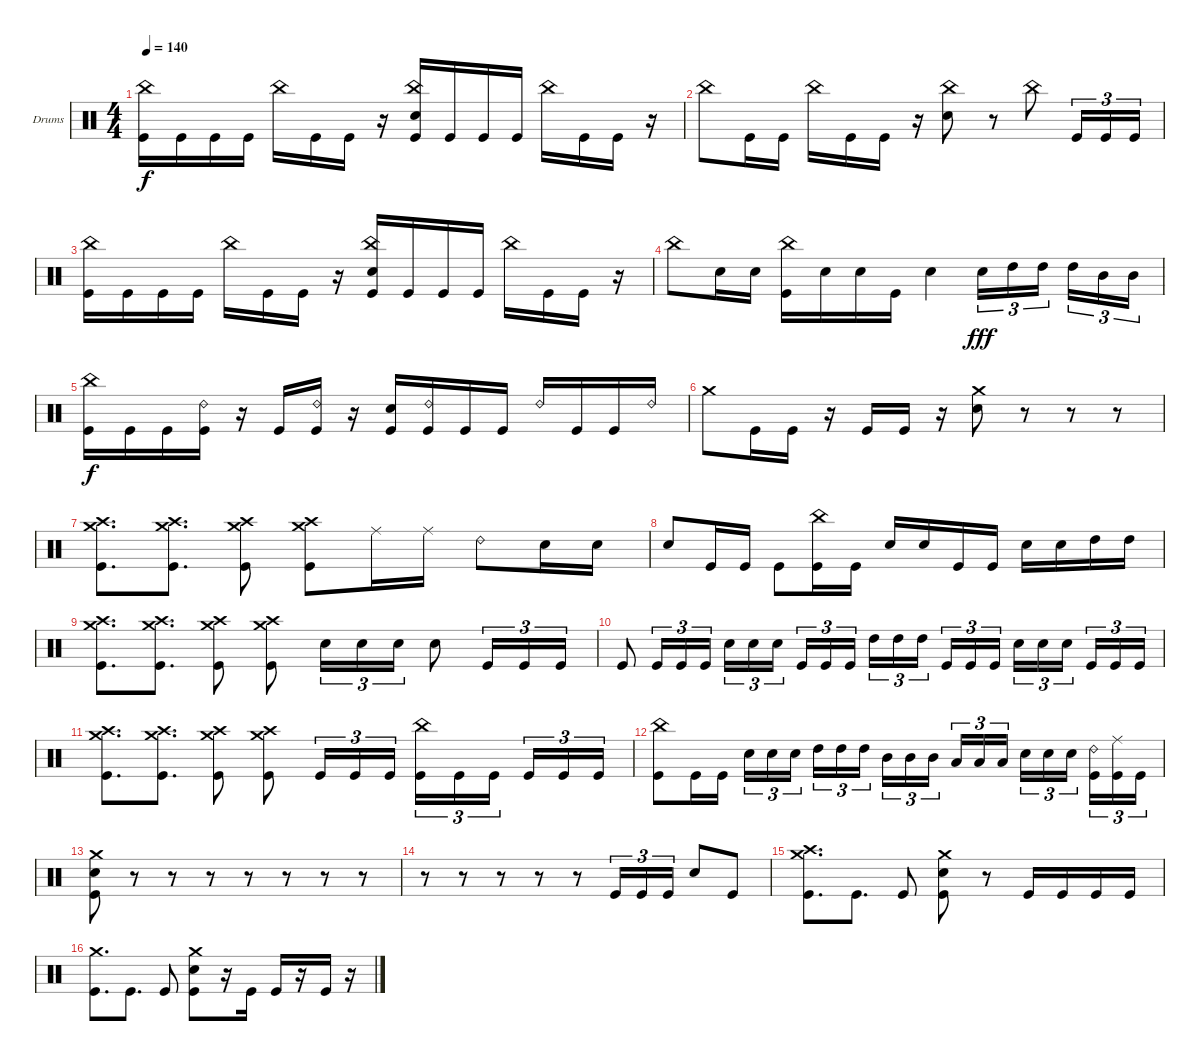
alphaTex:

\bracketExtendMode groupsimilarinstruments
\firstSystemTrackNameOrientation horizontal
\otherSystemsTrackNameOrientation horizontal
\track ("Drumkit" "Drums") {instrument percussion}
\staff {score}
\articulation defaults
\ts (4 4)
\tempo 140
\clef neutral
\ks c
("Kick (hit)" "China (hit)").16{dy f} "Kick (hit)".16 "Kick (hit)".16 "Kick (hit)".16 "China (hit)".16 "Kick (hit)".16 "Kick (hit)".16 r.16 ("Kick (hit)" "China (hit)" "Snare (hit) 2").16 "Kick (hit)".16 "Kick (hit)".16 "Kick (hit)".16 "China (hit)".16 "Kick (hit)".16 "Kick (hit)".16 r.16 |
"China (hit)".8 "Kick (hit)".16 "Kick (hit)".16 "China (hit)".16 "Kick (hit)".16 "Kick (hit)".16 r.16 ("China (hit)" "Snare (hit) 2").8 r.8 "China (hit)".8 "Kick (hit)".16{tu (3 2)} "Kick (hit)".16{tu (3 2)} "Kick (hit)".16{tu (3 2)} |
("Kick (hit)" "China (hit)").16 "Kick (hit)".16 "Kick (hit)".16 "Kick (hit)".16 "China (hit)".16 "Kick (hit)".16 "Kick (hit)".16 r.16 ("Kick (hit)" "China (hit)" "Snare (hit) 2").16 "Kick (hit)".16 "Kick (hit)".16 "Kick (hit)".16 "China (hit)".16 "Kick (hit)".16 "Kick (hit)".16 r.16 |
"China (hit)".8 "Snare (hit) 2".16 "Snare (hit) 2".16 ("Kick (hit)" "China (hit)").16 "Snare (hit) 2".16 "Snare (hit) 2".16 "Kick (hit)".16 "Snare (hit) 2".4 "Snare (hit) 2".16{tu (3 2) dy fff} "High Tom (hit)".16{tu (3 2)} "High Tom (hit)".16{tu (3 2)} "High Tom (hit)".16{tu (3 2)} "Mid Tom (hit)".16{tu (3 2)} "Mid Tom (hit)".16{tu (3 2)} |
("Kick (hit)" "China (hit)").16{dy f} "Kick (hit)".16 "Kick (hit)".16 ("Kick (hit)" "Ride (bell) 2").16 r.16 "Kick (hit)".16 ("Kick (hit)" "Ride (bell) 2").16 r.16 ("Kick (hit)" "Snare (hit) 2").16 ("Kick (hit)" "Ride (bell) 2").16 "Kick (hit)".16 "Kick (hit)".16 "Ride (bell) 2".16 "Kick (hit)".16 "Kick (hit)".16 "Ride (bell) 2".16 |
"Crash medium (hit)".8 "Kick (hit)".16 "Kick (hit)".16 r.16 "Kick (hit)".16 "Kick (hit)".16 r.16 ("Crash medium (hit)" "Snare (hit) 2").8 r.8 r.8 r.8 |
("Kick (hit)" "Crash medium (hit)" "Crash high (hit)").8{d} ("Kick (hit)" "Crash medium (hit)" "Crash high (hit)").8{d} ("Kick (hit)" "Crash medium (hit)" "Crash high (hit)").8 ("Kick (hit)" "Crash medium (hit)" "Crash high (hit)").8 "Ride (middle)".16 "Ride (middle)".16 "Ride (bell) 2".8 "Snare (hit) 2".16 "Snare (hit) 2".16 |
"Snare (hit) 2".8 "Kick (hit)".16 "Kick (hit)".16 "Kick (hit)".8 ("Kick (hit)" "China (hit)").16 "Kick (hit)".16 "Snare (hit) 2".16 "Snare (hit) 2".16 "Kick (hit)".16 "Kick (hit)".16 "Snare (hit) 2".16 "Snare (hit) 2".16 "High Tom (hit)".16 "High Tom (hit)".16 |
("Kick (hit)" "Crash medium (hit)" "Crash high (hit)").8{d} ("Kick (hit)" "Crash medium (hit)" "Crash high (hit)").8{d} ("Kick (hit)" "Crash medium (hit)" "Crash high (hit)").8 ("Kick (hit)" "Crash medium (hit)" "Crash high (hit)").8 "Snare (hit) 2".16{tu (3 2)} "Snare (hit) 2".16{tu (3 2)} "Snare (hit) 2".16{tu (3 2)} "Snare (hit) 2".8 "Kick (hit)".16{tu (3 2)} "Kick (hit)".16{tu (3 2)} "Kick (hit)".16{tu (3 2)} |
"Kick (hit)".8 "Kick (hit)".16{tu (3 2)} "Kick (hit)".16{tu (3 2)} "Kick (hit)".16{tu (3 2)} "Snare (hit) 2".16{tu (3 2)} "Snare (hit) 2".16{tu (3 2)} "Snare (hit) 2".16{tu (3 2)} "Kick (hit)".16{tu (3 2)} "Kick (hit)".16{tu (3 2)} "Kick (hit)".16{tu (3 2)} "High Tom (hit)".16{tu (3 2)} "High Tom (hit)".16{tu (3 2)} "High Tom (hit)".16{tu (3 2)} "Kick (hit)".16{tu (3 2)} "Kick (hit)".16{tu (3 2)} "Kick (hit)".16{tu (3 2)} "Snare (hit) 2".16{tu (3 2)} "Snare (hit) 2".16{tu (3 2)} "Snare (hit) 2".16{tu (3 2)} "Kick (hit)".16{tu (3 2)} "Kick (hit)".16{tu (3 2)} "Kick (hit)".16{tu (3 2)} |
("Kick (hit)" "Crash medium (hit)" "Crash high (hit)").8{d} ("Kick (hit)" "Crash medium (hit)" "Crash high (hit)").8{d} ("Kick (hit)" "Crash medium (hit)" "Crash high (hit)").8 ("Kick (hit)" "Crash medium (hit)" "Crash high (hit)").8 "Kick (hit)".16{tu (3 2)} "Kick (hit)".16{tu (3 2)} "Kick (hit)".16{tu (3 2)} ("Kick (hit)" "China (hit)").16{tu (3 2)} "Kick (hit)".16{tu (3 2)} "Kick (hit)".16{tu (3 2)} "Kick (hit)".16{tu (3 2)} "Kick (hit)".16{tu (3 2)} "Kick (hit)".16{tu (3 2)} |
("China (hit)" "Kick (hit)").8 "Kick (hit)".16 "Kick (hit)".16 "Snare (hit) 2".16{tu (3 2)} "Snare (hit) 2".16{tu (3 2)} "Snare (hit) 2".16{tu (3 2)} "High Tom (hit)".16{tu (3 2)} "High Tom (hit)".16{tu (3 2)} "High Tom (hit)".16{tu (3 2)} "Mid Tom (hit)".16{tu (3 2)} "Mid Tom (hit)".16{tu (3 2)} "Mid Tom (hit)".16{tu (3 2)} "Low Tom (hit)".16{tu (3 2)} "Low Tom (hit)".16{tu (3 2)} "Low Tom (hit)".16{tu (3 2)} "Snare (hit) 2".16{tu (3 2)} "Snare (hit) 2".16{tu (3 2)} "Snare (hit) 2".16{tu (3 2)} ("Ride (bell) 2" "Kick (hit)").16{tu (3 2)} ("Kick (hit)" "Ride (middle)").16{tu (3 2)} "Kick (hit)".16{tu (3 2)} |
("Kick (hit)" "Crash medium (hit)" "Snare (hit) 2").8 r.8 r.8 r.8 r.8 r.8 r.8 r.8 |
r.8 r.8 r.8 r.8 r.8 "Kick (hit)".16{tu (3 2)} "Kick (hit)".16{tu (3 2)} "Kick (hit)".16{tu (3 2)} "Snare (hit) 2".8 "Kick (hit)".8 |
("Kick (hit)" "Crash medium (hit)" "Crash high (hit)").8{d} "Kick (hit)".8{d} "Kick (hit)".8 ("Kick (hit)" "Crash medium (hit)" "Snare (hit) 2").8 r.8 "Kick (hit)".16 "Kick (hit)".16 "Kick (hit)".16 "Kick (hit)".16 |
("Kick (hit)" "Crash medium (hit)").8{d} "Kick (hit)".8{d} "Kick (hit)".8 ("Kick (hit)" "Crash medium (hit)" "Snare (hit) 2").8 r.16 "Kick (hit)".16 "Kick (hit)".16 r.16 "Kick (hit)".16 r.16
